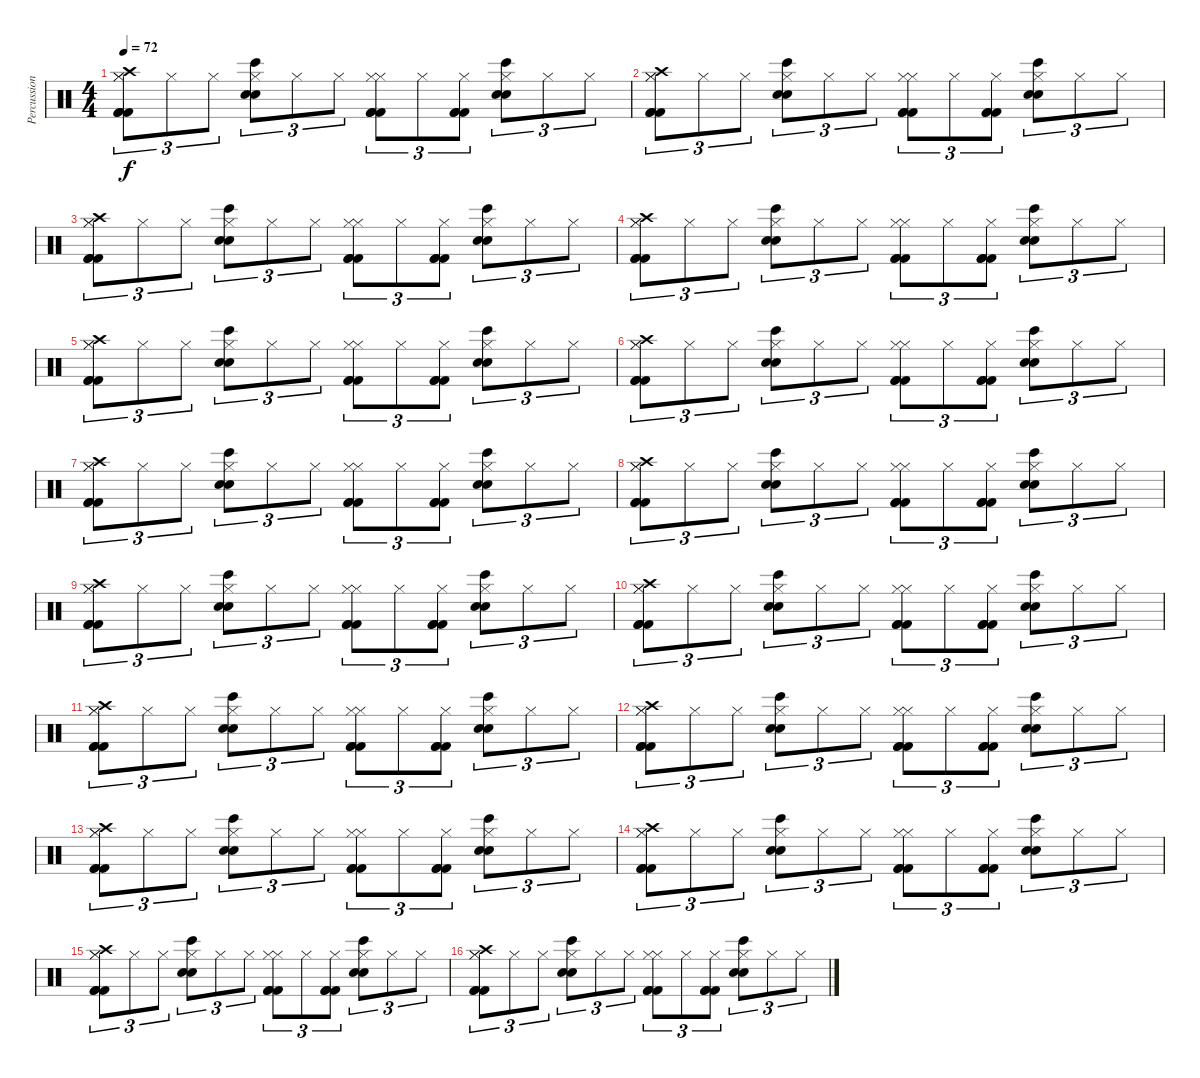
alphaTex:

\track ("Percussions" "Percussion") {instrument percussion}
\staff {score}
\articulation defaults
\ts (4 4)
\tempo 72
\clef neutral
\ks c
("Hi-Hat (closed)" "Hi-Hat (closed)" "Kick (hit) 2" "Kick (hit) 2" "Kick (hit) 2" "Crash high (hit)").8{tu (3 2) dy f} "Hi-Hat (closed)".8{tu (3 2)} "Hi-Hat (closed)".8{tu (3 2)} ("Hi-Hat (closed)" "Bongo High (hit)" "Snare (hit) 2" "Snare (hit) 2").8{tu (3 2)} "Hi-Hat (closed)".8{tu (3 2)} "Hi-Hat (closed)".8{tu (3 2)} ("Hi-Hat (closed)" "Hi-Hat (closed)" "Kick (hit) 2" "Kick (hit) 2" "Kick (hit) 2").8{tu (3 2)} "Hi-Hat (closed)".8{tu (3 2)} ("Hi-Hat (closed)" "Kick (hit) 2" "Kick (hit) 2" "Kick (hit) 2").8{tu (3 2)} ("Hi-Hat (closed)" "Bongo High (hit)" "Snare (hit) 2" "Snare (hit) 2").8{tu (3 2)} "Hi-Hat (closed)".8{tu (3 2)} "Hi-Hat (closed)".8{tu (3 2)} |
("Hi-Hat (closed)" "Hi-Hat (closed)" "Kick (hit) 2" "Kick (hit) 2" "Kick (hit) 2" "Crash high (hit)").8{tu (3 2)} "Hi-Hat (closed)".8{tu (3 2)} "Hi-Hat (closed)".8{tu (3 2)} ("Hi-Hat (closed)" "Bongo High (hit)" "Snare (hit) 2" "Snare (hit) 2").8{tu (3 2)} "Hi-Hat (closed)".8{tu (3 2)} "Hi-Hat (closed)".8{tu (3 2)} ("Hi-Hat (closed)" "Hi-Hat (closed)" "Kick (hit) 2" "Kick (hit) 2" "Kick (hit) 2").8{tu (3 2)} "Hi-Hat (closed)".8{tu (3 2)} ("Hi-Hat (closed)" "Kick (hit) 2" "Kick (hit) 2" "Kick (hit) 2").8{tu (3 2)} ("Hi-Hat (closed)" "Bongo High (hit)" "Snare (hit) 2" "Snare (hit) 2").8{tu (3 2)} "Hi-Hat (closed)".8{tu (3 2)} "Hi-Hat (closed)".8{tu (3 2)} |
("Hi-Hat (closed)" "Hi-Hat (closed)" "Kick (hit) 2" "Kick (hit) 2" "Kick (hit) 2" "Crash high (hit)").8{tu (3 2)} "Hi-Hat (closed)".8{tu (3 2)} "Hi-Hat (closed)".8{tu (3 2)} ("Hi-Hat (closed)" "Bongo High (hit)" "Snare (hit) 2" "Snare (hit) 2").8{tu (3 2)} "Hi-Hat (closed)".8{tu (3 2)} "Hi-Hat (closed)".8{tu (3 2)} ("Hi-Hat (closed)" "Hi-Hat (closed)" "Kick (hit) 2" "Kick (hit) 2" "Kick (hit) 2").8{tu (3 2)} "Hi-Hat (closed)".8{tu (3 2)} ("Hi-Hat (closed)" "Kick (hit) 2" "Kick (hit) 2" "Kick (hit) 2").8{tu (3 2)} ("Hi-Hat (closed)" "Bongo High (hit)" "Snare (hit) 2" "Snare (hit) 2").8{tu (3 2)} "Hi-Hat (closed)".8{tu (3 2)} "Hi-Hat (closed)".8{tu (3 2)} |
("Hi-Hat (closed)" "Hi-Hat (closed)" "Kick (hit) 2" "Kick (hit) 2" "Kick (hit) 2" "Crash high (hit)").8{tu (3 2)} "Hi-Hat (closed)".8{tu (3 2)} "Hi-Hat (closed)".8{tu (3 2)} ("Hi-Hat (closed)" "Bongo High (hit)" "Snare (hit) 2" "Snare (hit) 2").8{tu (3 2)} "Hi-Hat (closed)".8{tu (3 2)} "Hi-Hat (closed)".8{tu (3 2)} ("Hi-Hat (closed)" "Hi-Hat (closed)" "Kick (hit) 2" "Kick (hit) 2" "Kick (hit) 2").8{tu (3 2)} "Hi-Hat (closed)".8{tu (3 2)} ("Hi-Hat (closed)" "Kick (hit) 2" "Kick (hit) 2" "Kick (hit) 2").8{tu (3 2)} ("Hi-Hat (closed)" "Bongo High (hit)" "Snare (hit) 2" "Snare (hit) 2").8{tu (3 2)} "Hi-Hat (closed)".8{tu (3 2)} "Hi-Hat (closed)".8{tu (3 2)} |
("Hi-Hat (closed)" "Hi-Hat (closed)" "Kick (hit) 2" "Kick (hit) 2" "Kick (hit) 2" "Crash high (hit)").8{tu (3 2)} "Hi-Hat (closed)".8{tu (3 2)} "Hi-Hat (closed)".8{tu (3 2)} ("Hi-Hat (closed)" "Bongo High (hit)" "Snare (hit) 2" "Snare (hit) 2").8{tu (3 2)} "Hi-Hat (closed)".8{tu (3 2)} "Hi-Hat (closed)".8{tu (3 2)} ("Hi-Hat (closed)" "Hi-Hat (closed)" "Kick (hit) 2" "Kick (hit) 2" "Kick (hit) 2").8{tu (3 2)} "Hi-Hat (closed)".8{tu (3 2)} ("Hi-Hat (closed)" "Kick (hit) 2" "Kick (hit) 2" "Kick (hit) 2").8{tu (3 2)} ("Hi-Hat (closed)" "Bongo High (hit)" "Snare (hit) 2" "Snare (hit) 2").8{tu (3 2)} "Hi-Hat (closed)".8{tu (3 2)} "Hi-Hat (closed)".8{tu (3 2)} |
("Hi-Hat (closed)" "Hi-Hat (closed)" "Kick (hit) 2" "Kick (hit) 2" "Kick (hit) 2" "Crash high (hit)").8{tu (3 2)} "Hi-Hat (closed)".8{tu (3 2)} "Hi-Hat (closed)".8{tu (3 2)} ("Hi-Hat (closed)" "Bongo High (hit)" "Snare (hit) 2" "Snare (hit) 2").8{tu (3 2)} "Hi-Hat (closed)".8{tu (3 2)} "Hi-Hat (closed)".8{tu (3 2)} ("Hi-Hat (closed)" "Hi-Hat (closed)" "Kick (hit) 2" "Kick (hit) 2" "Kick (hit) 2").8{tu (3 2)} "Hi-Hat (closed)".8{tu (3 2)} ("Hi-Hat (closed)" "Kick (hit) 2" "Kick (hit) 2" "Kick (hit) 2").8{tu (3 2)} ("Hi-Hat (closed)" "Bongo High (hit)" "Snare (hit) 2" "Snare (hit) 2").8{tu (3 2)} "Hi-Hat (closed)".8{tu (3 2)} "Hi-Hat (closed)".8{tu (3 2)} |
("Hi-Hat (closed)" "Hi-Hat (closed)" "Kick (hit) 2" "Kick (hit) 2" "Kick (hit) 2" "Crash high (hit)").8{tu (3 2)} "Hi-Hat (closed)".8{tu (3 2)} "Hi-Hat (closed)".8{tu (3 2)} ("Hi-Hat (closed)" "Bongo High (hit)" "Snare (hit) 2" "Snare (hit) 2").8{tu (3 2)} "Hi-Hat (closed)".8{tu (3 2)} "Hi-Hat (closed)".8{tu (3 2)} ("Hi-Hat (closed)" "Hi-Hat (closed)" "Kick (hit) 2" "Kick (hit) 2" "Kick (hit) 2").8{tu (3 2)} "Hi-Hat (closed)".8{tu (3 2)} ("Hi-Hat (closed)" "Kick (hit) 2" "Kick (hit) 2" "Kick (hit) 2").8{tu (3 2)} ("Hi-Hat (closed)" "Bongo High (hit)" "Snare (hit) 2" "Snare (hit) 2").8{tu (3 2)} "Hi-Hat (closed)".8{tu (3 2)} "Hi-Hat (closed)".8{tu (3 2)} |
("Hi-Hat (closed)" "Hi-Hat (closed)" "Kick (hit) 2" "Kick (hit) 2" "Kick (hit) 2" "Crash high (hit)").8{tu (3 2)} "Hi-Hat (closed)".8{tu (3 2)} "Hi-Hat (closed)".8{tu (3 2)} ("Hi-Hat (closed)" "Bongo High (hit)" "Snare (hit) 2" "Snare (hit) 2").8{tu (3 2)} "Hi-Hat (closed)".8{tu (3 2)} "Hi-Hat (closed)".8{tu (3 2)} ("Hi-Hat (closed)" "Hi-Hat (closed)" "Kick (hit) 2" "Kick (hit) 2" "Kick (hit) 2").8{tu (3 2)} "Hi-Hat (closed)".8{tu (3 2)} ("Hi-Hat (closed)" "Kick (hit) 2" "Kick (hit) 2" "Kick (hit) 2").8{tu (3 2)} ("Hi-Hat (closed)" "Bongo High (hit)" "Snare (hit) 2" "Snare (hit) 2").8{tu (3 2)} "Hi-Hat (closed)".8{tu (3 2)} "Hi-Hat (closed)".8{tu (3 2)} |
("Hi-Hat (closed)" "Hi-Hat (closed)" "Kick (hit) 2" "Kick (hit) 2" "Kick (hit) 2" "Crash high (hit)").8{tu (3 2)} "Hi-Hat (closed)".8{tu (3 2)} "Hi-Hat (closed)".8{tu (3 2)} ("Hi-Hat (closed)" "Bongo High (hit)" "Snare (hit) 2" "Snare (hit) 2").8{tu (3 2)} "Hi-Hat (closed)".8{tu (3 2)} "Hi-Hat (closed)".8{tu (3 2)} ("Hi-Hat (closed)" "Hi-Hat (closed)" "Kick (hit) 2" "Kick (hit) 2" "Kick (hit) 2").8{tu (3 2)} "Hi-Hat (closed)".8{tu (3 2)} ("Hi-Hat (closed)" "Kick (hit) 2" "Kick (hit) 2" "Kick (hit) 2").8{tu (3 2)} ("Hi-Hat (closed)" "Bongo High (hit)" "Snare (hit) 2" "Snare (hit) 2").8{tu (3 2)} "Hi-Hat (closed)".8{tu (3 2)} "Hi-Hat (closed)".8{tu (3 2)} |
("Hi-Hat (closed)" "Hi-Hat (closed)" "Kick (hit) 2" "Kick (hit) 2" "Kick (hit) 2" "Crash high (hit)").8{tu (3 2)} "Hi-Hat (closed)".8{tu (3 2)} "Hi-Hat (closed)".8{tu (3 2)} ("Hi-Hat (closed)" "Bongo High (hit)" "Snare (hit) 2" "Snare (hit) 2").8{tu (3 2)} "Hi-Hat (closed)".8{tu (3 2)} "Hi-Hat (closed)".8{tu (3 2)} ("Hi-Hat (closed)" "Hi-Hat (closed)" "Kick (hit) 2" "Kick (hit) 2" "Kick (hit) 2").8{tu (3 2)} "Hi-Hat (closed)".8{tu (3 2)} ("Hi-Hat (closed)" "Kick (hit) 2" "Kick (hit) 2" "Kick (hit) 2").8{tu (3 2)} ("Hi-Hat (closed)" "Bongo High (hit)" "Snare (hit) 2" "Snare (hit) 2").8{tu (3 2)} "Hi-Hat (closed)".8{tu (3 2)} "Hi-Hat (closed)".8{tu (3 2)} |
("Hi-Hat (closed)" "Hi-Hat (closed)" "Kick (hit) 2" "Kick (hit) 2" "Kick (hit) 2" "Crash high (hit)").8{tu (3 2)} "Hi-Hat (closed)".8{tu (3 2)} "Hi-Hat (closed)".8{tu (3 2)} ("Hi-Hat (closed)" "Bongo High (hit)" "Snare (hit) 2" "Snare (hit) 2").8{tu (3 2)} "Hi-Hat (closed)".8{tu (3 2)} "Hi-Hat (closed)".8{tu (3 2)} ("Hi-Hat (closed)" "Hi-Hat (closed)" "Kick (hit) 2" "Kick (hit) 2" "Kick (hit) 2").8{tu (3 2)} "Hi-Hat (closed)".8{tu (3 2)} ("Hi-Hat (closed)" "Kick (hit) 2" "Kick (hit) 2" "Kick (hit) 2").8{tu (3 2)} ("Hi-Hat (closed)" "Bongo High (hit)" "Snare (hit) 2" "Snare (hit) 2").8{tu (3 2)} "Hi-Hat (closed)".8{tu (3 2)} "Hi-Hat (closed)".8{tu (3 2)} |
("Hi-Hat (closed)" "Hi-Hat (closed)" "Kick (hit) 2" "Kick (hit) 2" "Kick (hit) 2" "Crash high (hit)").8{tu (3 2)} "Hi-Hat (closed)".8{tu (3 2)} "Hi-Hat (closed)".8{tu (3 2)} ("Hi-Hat (closed)" "Bongo High (hit)" "Snare (hit) 2" "Snare (hit) 2").8{tu (3 2)} "Hi-Hat (closed)".8{tu (3 2)} "Hi-Hat (closed)".8{tu (3 2)} ("Hi-Hat (closed)" "Hi-Hat (closed)" "Kick (hit) 2" "Kick (hit) 2" "Kick (hit) 2").8{tu (3 2)} "Hi-Hat (closed)".8{tu (3 2)} ("Hi-Hat (closed)" "Kick (hit) 2" "Kick (hit) 2" "Kick (hit) 2").8{tu (3 2)} ("Hi-Hat (closed)" "Bongo High (hit)" "Snare (hit) 2" "Snare (hit) 2").8{tu (3 2)} "Hi-Hat (closed)".8{tu (3 2)} "Hi-Hat (closed)".8{tu (3 2)} |
("Hi-Hat (closed)" "Hi-Hat (closed)" "Kick (hit) 2" "Kick (hit) 2" "Kick (hit) 2" "Crash high (hit)").8{tu (3 2)} "Hi-Hat (closed)".8{tu (3 2)} "Hi-Hat (closed)".8{tu (3 2)} ("Hi-Hat (closed)" "Bongo High (hit)" "Snare (hit) 2" "Snare (hit) 2").8{tu (3 2)} "Hi-Hat (closed)".8{tu (3 2)} "Hi-Hat (closed)".8{tu (3 2)} ("Hi-Hat (closed)" "Hi-Hat (closed)" "Kick (hit) 2" "Kick (hit) 2" "Kick (hit) 2").8{tu (3 2)} "Hi-Hat (closed)".8{tu (3 2)} ("Hi-Hat (closed)" "Kick (hit) 2" "Kick (hit) 2" "Kick (hit) 2").8{tu (3 2)} ("Hi-Hat (closed)" "Bongo High (hit)" "Snare (hit) 2" "Snare (hit) 2").8{tu (3 2)} "Hi-Hat (closed)".8{tu (3 2)} "Hi-Hat (closed)".8{tu (3 2)} |
("Hi-Hat (closed)" "Hi-Hat (closed)" "Kick (hit) 2" "Kick (hit) 2" "Kick (hit) 2" "Crash high (hit)").8{tu (3 2)} "Hi-Hat (closed)".8{tu (3 2)} "Hi-Hat (closed)".8{tu (3 2)} ("Hi-Hat (closed)" "Bongo High (hit)" "Snare (hit) 2" "Snare (hit) 2").8{tu (3 2)} "Hi-Hat (closed)".8{tu (3 2)} "Hi-Hat (closed)".8{tu (3 2)} ("Hi-Hat (closed)" "Hi-Hat (closed)" "Kick (hit) 2" "Kick (hit) 2" "Kick (hit) 2").8{tu (3 2)} "Hi-Hat (closed)".8{tu (3 2)} ("Hi-Hat (closed)" "Kick (hit) 2" "Kick (hit) 2" "Kick (hit) 2").8{tu (3 2)} ("Hi-Hat (closed)" "Bongo High (hit)" "Snare (hit) 2" "Snare (hit) 2").8{tu (3 2)} "Hi-Hat (closed)".8{tu (3 2)} "Hi-Hat (closed)".8{tu (3 2)} |
("Hi-Hat (closed)" "Hi-Hat (closed)" "Kick (hit) 2" "Kick (hit) 2" "Kick (hit) 2" "Crash high (hit)").8{tu (3 2)} "Hi-Hat (closed)".8{tu (3 2)} "Hi-Hat (closed)".8{tu (3 2)} ("Hi-Hat (closed)" "Bongo High (hit)" "Snare (hit) 2" "Snare (hit) 2").8{tu (3 2)} "Hi-Hat (closed)".8{tu (3 2)} "Hi-Hat (closed)".8{tu (3 2)} ("Hi-Hat (closed)" "Hi-Hat (closed)" "Kick (hit) 2" "Kick (hit) 2" "Kick (hit) 2").8{tu (3 2)} "Hi-Hat (closed)".8{tu (3 2)} ("Hi-Hat (closed)" "Kick (hit) 2" "Kick (hit) 2" "Kick (hit) 2").8{tu (3 2)} ("Hi-Hat (closed)" "Bongo High (hit)" "Snare (hit) 2" "Snare (hit) 2").8{tu (3 2)} "Hi-Hat (closed)".8{tu (3 2)} "Hi-Hat (closed)".8{tu (3 2)} |
("Hi-Hat (closed)" "Hi-Hat (closed)" "Kick (hit) 2" "Kick (hit) 2" "Kick (hit) 2" "Crash high (hit)").8{tu (3 2)} "Hi-Hat (closed)".8{tu (3 2)} "Hi-Hat (closed)".8{tu (3 2)} ("Hi-Hat (closed)" "Bongo High (hit)" "Snare (hit) 2" "Snare (hit) 2").8{tu (3 2)} "Hi-Hat (closed)".8{tu (3 2)} "Hi-Hat (closed)".8{tu (3 2)} ("Hi-Hat (closed)" "Hi-Hat (closed)" "Kick (hit) 2" "Kick (hit) 2" "Kick (hit) 2").8{tu (3 2)} "Hi-Hat (closed)".8{tu (3 2)} ("Hi-Hat (closed)" "Kick (hit) 2" "Kick (hit) 2" "Kick (hit) 2").8{tu (3 2)} ("Hi-Hat (closed)" "Bongo High (hit)" "Snare (hit) 2" "Snare (hit) 2").8{tu (3 2)} "Hi-Hat (closed)".8{tu (3 2)} "Hi-Hat (closed)".8{tu (3 2)}
